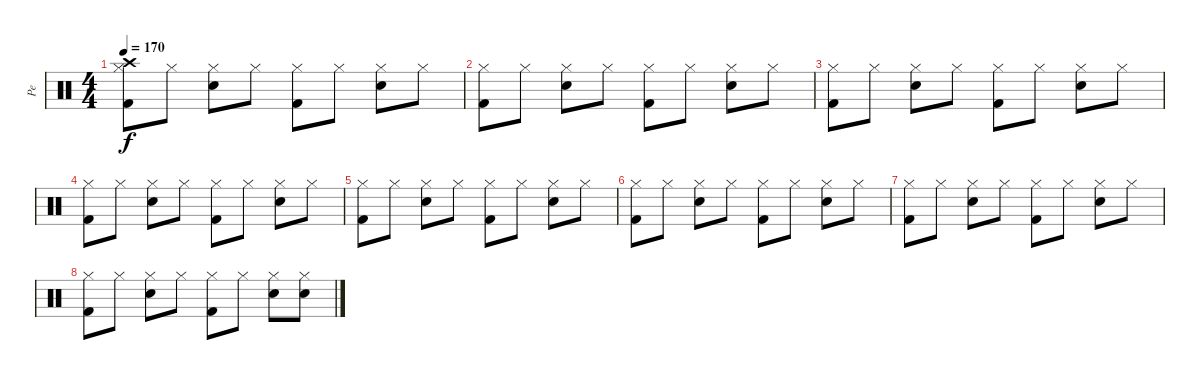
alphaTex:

\track ("Pe" "Pe") {instrument percussion}
\staff {score}
\articulation defaults
\ts (4 4)
\tempo 170
\clef neutral
\ks c
("Crash high (hit)" "Hi-Hat (closed)" "Kick (hit) 2").8{dy f} "Hi-Hat (closed)".8 ("Hi-Hat (closed)" "Snare (hit) 2").8 "Hi-Hat (closed)".8 ("Hi-Hat (closed)" "Kick (hit) 2").8 "Hi-Hat (closed)".8 ("Hi-Hat (closed)" "Snare (hit) 2").8 "Hi-Hat (closed)".8 |
("Hi-Hat (closed)" "Kick (hit) 2").8 "Hi-Hat (closed)".8 ("Hi-Hat (closed)" "Snare (hit) 2").8 "Hi-Hat (closed)".8 ("Hi-Hat (closed)" "Kick (hit) 2").8 "Hi-Hat (closed)".8 ("Hi-Hat (closed)" "Snare (hit) 2").8 "Hi-Hat (closed)".8 |
("Hi-Hat (closed)" "Kick (hit) 2").8 "Hi-Hat (closed)".8 ("Hi-Hat (closed)" "Snare (hit) 2").8 "Hi-Hat (closed)".8 ("Hi-Hat (closed)" "Kick (hit) 2").8 "Hi-Hat (closed)".8 ("Hi-Hat (closed)" "Snare (hit) 2").8 "Hi-Hat (closed)".8 |
("Hi-Hat (closed)" "Kick (hit) 2").8 "Hi-Hat (closed)".8 ("Hi-Hat (closed)" "Snare (hit) 2").8 "Hi-Hat (closed)".8 ("Hi-Hat (closed)" "Kick (hit) 2").8 "Hi-Hat (closed)".8 ("Hi-Hat (closed)" "Snare (hit) 2").8 "Hi-Hat (closed)".8 |
("Hi-Hat (closed)" "Kick (hit) 2").8 "Hi-Hat (closed)".8 ("Hi-Hat (closed)" "Snare (hit) 2").8 "Hi-Hat (closed)".8 ("Hi-Hat (closed)" "Kick (hit) 2").8 "Hi-Hat (closed)".8 ("Hi-Hat (closed)" "Snare (hit) 2").8 "Hi-Hat (closed)".8 |
("Hi-Hat (closed)" "Kick (hit) 2").8 "Hi-Hat (closed)".8 ("Hi-Hat (closed)" "Snare (hit) 2").8 "Hi-Hat (closed)".8 ("Hi-Hat (closed)" "Kick (hit) 2").8 "Hi-Hat (closed)".8 ("Hi-Hat (closed)" "Snare (hit) 2").8 "Hi-Hat (closed)".8 |
("Hi-Hat (closed)" "Kick (hit) 2").8 "Hi-Hat (closed)".8 ("Hi-Hat (closed)" "Snare (hit) 2").8 "Hi-Hat (closed)".8 ("Hi-Hat (closed)" "Kick (hit) 2").8 "Hi-Hat (closed)".8 ("Hi-Hat (closed)" "Snare (hit) 2").8 "Hi-Hat (closed)".8 |
("Hi-Hat (closed)" "Kick (hit) 2").8 "Hi-Hat (closed)".8 ("Hi-Hat (closed)" "Snare (hit) 2").8 "Hi-Hat (closed)".8 ("Hi-Hat (closed)" "Kick (hit) 2").8 "Hi-Hat (closed)".8 ("Hi-Hat (closed)" "Snare (hit) 2").8 ("Hi-Hat (closed)" "Snare (hit) 2").8
